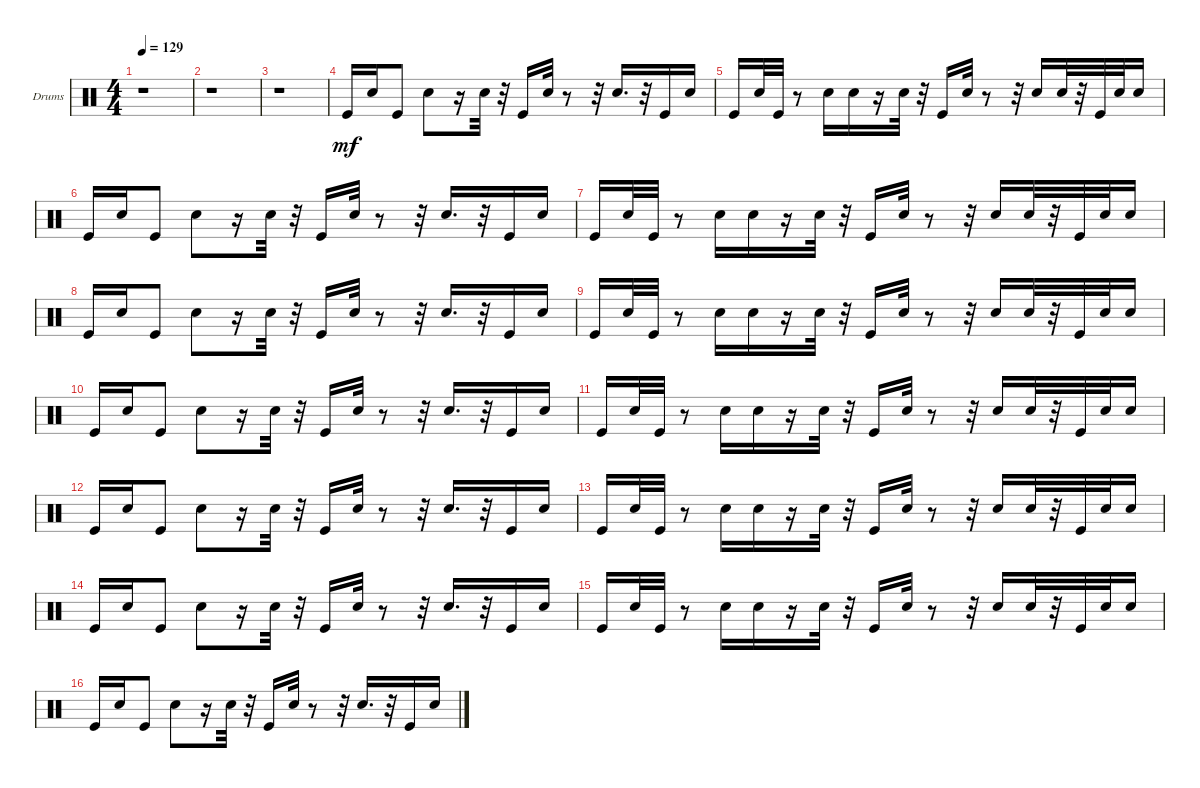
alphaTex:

\bracketExtendMode groupsimilarinstruments
\firstSystemTrackNameOrientation horizontal
\otherSystemsTrackNameOrientation horizontal
\track ("istar" "Drums") {instrument percussion}
\staff {score}
\articulation defaults
\ts (4 4)
\tempo 129
\clef neutral
\ks c
r.1{dy mf} |
r.1 |
r.1 |
"Kick (hit)".16 "Snare (hit) 2".16 "Kick (hit)".8 "Snare (hit) 2".8 r.16 "Snare (hit) 2".32 r.32 "Kick (hit)".16 "Snare (hit) 2".32 r.8 r.32 "Snare (hit) 2".16{d} r.32 "Kick (hit)".16 "Snare (hit) 2".16 |
"Kick (hit)".16 "Snare (hit) 2".32 "Kick (hit)".32 r.8 "Snare (hit) 2".16 "Snare (hit) 2".16 r.16 "Snare (hit) 2".32 r.32 "Kick (hit)".16 "Snare (hit) 2".32 r.8 r.32 "Snare (hit) 2".16 "Snare (hit) 2".32 r.32 "Kick (hit)".32 "Snare (hit) 2".32 "Snare (hit) 2".16 |
"Kick (hit)".16 "Snare (hit) 2".16 "Kick (hit)".8 "Snare (hit) 2".8 r.16 "Snare (hit) 2".32 r.32 "Kick (hit)".16 "Snare (hit) 2".32 r.8 r.32 "Snare (hit) 2".16{d} r.32 "Kick (hit)".16 "Snare (hit) 2".16 |
"Kick (hit)".16 "Snare (hit) 2".32 "Kick (hit)".32 r.8 "Snare (hit) 2".16 "Snare (hit) 2".16 r.16 "Snare (hit) 2".32 r.32 "Kick (hit)".16 "Snare (hit) 2".32 r.8 r.32 "Snare (hit) 2".16 "Snare (hit) 2".32 r.32 "Kick (hit)".32 "Snare (hit) 2".32 "Snare (hit) 2".16 |
"Kick (hit)".16 "Snare (hit) 2".16 "Kick (hit)".8 "Snare (hit) 2".8 r.16 "Snare (hit) 2".32 r.32 "Kick (hit)".16 "Snare (hit) 2".32 r.8 r.32 "Snare (hit) 2".16{d} r.32 "Kick (hit)".16 "Snare (hit) 2".16 |
"Kick (hit)".16 "Snare (hit) 2".32 "Kick (hit)".32 r.8 "Snare (hit) 2".16 "Snare (hit) 2".16 r.16 "Snare (hit) 2".32 r.32 "Kick (hit)".16 "Snare (hit) 2".32 r.8 r.32 "Snare (hit) 2".16 "Snare (hit) 2".32 r.32 "Kick (hit)".32 "Snare (hit) 2".32 "Snare (hit) 2".16 |
"Kick (hit)".16 "Snare (hit) 2".16 "Kick (hit)".8 "Snare (hit) 2".8 r.16 "Snare (hit) 2".32 r.32 "Kick (hit)".16 "Snare (hit) 2".32 r.8 r.32 "Snare (hit) 2".16{d} r.32 "Kick (hit)".16 "Snare (hit) 2".16 |
"Kick (hit)".16 "Snare (hit) 2".32 "Kick (hit)".32 r.8 "Snare (hit) 2".16 "Snare (hit) 2".16 r.16 "Snare (hit) 2".32 r.32 "Kick (hit)".16 "Snare (hit) 2".32 r.8 r.32 "Snare (hit) 2".16 "Snare (hit) 2".32 r.32 "Kick (hit)".32 "Snare (hit) 2".32 "Snare (hit) 2".16 |
"Kick (hit)".16 "Snare (hit) 2".16 "Kick (hit)".8 "Snare (hit) 2".8 r.16 "Snare (hit) 2".32 r.32 "Kick (hit)".16 "Snare (hit) 2".32 r.8 r.32 "Snare (hit) 2".16{d} r.32 "Kick (hit)".16 "Snare (hit) 2".16 |
"Kick (hit)".16 "Snare (hit) 2".32 "Kick (hit)".32 r.8 "Snare (hit) 2".16 "Snare (hit) 2".16 r.16 "Snare (hit) 2".32 r.32 "Kick (hit)".16 "Snare (hit) 2".32 r.8 r.32 "Snare (hit) 2".16 "Snare (hit) 2".32 r.32 "Kick (hit)".32 "Snare (hit) 2".32 "Snare (hit) 2".16 |
"Kick (hit)".16 "Snare (hit) 2".16 "Kick (hit)".8 "Snare (hit) 2".8 r.16 "Snare (hit) 2".32 r.32 "Kick (hit)".16 "Snare (hit) 2".32 r.8 r.32 "Snare (hit) 2".16{d} r.32 "Kick (hit)".16 "Snare (hit) 2".16 |
"Kick (hit)".16 "Snare (hit) 2".32 "Kick (hit)".32 r.8 "Snare (hit) 2".16 "Snare (hit) 2".16 r.16 "Snare (hit) 2".32 r.32 "Kick (hit)".16 "Snare (hit) 2".32 r.8 r.32 "Snare (hit) 2".16 "Snare (hit) 2".32 r.32 "Kick (hit)".32 "Snare (hit) 2".32 "Snare (hit) 2".16 |
"Kick (hit)".16 "Snare (hit) 2".16 "Kick (hit)".8 "Snare (hit) 2".8 r.16 "Snare (hit) 2".32 r.32 "Kick (hit)".16 "Snare (hit) 2".32 r.8 r.32 "Snare (hit) 2".16{d} r.32 "Kick (hit)".16 "Snare (hit) 2".16
